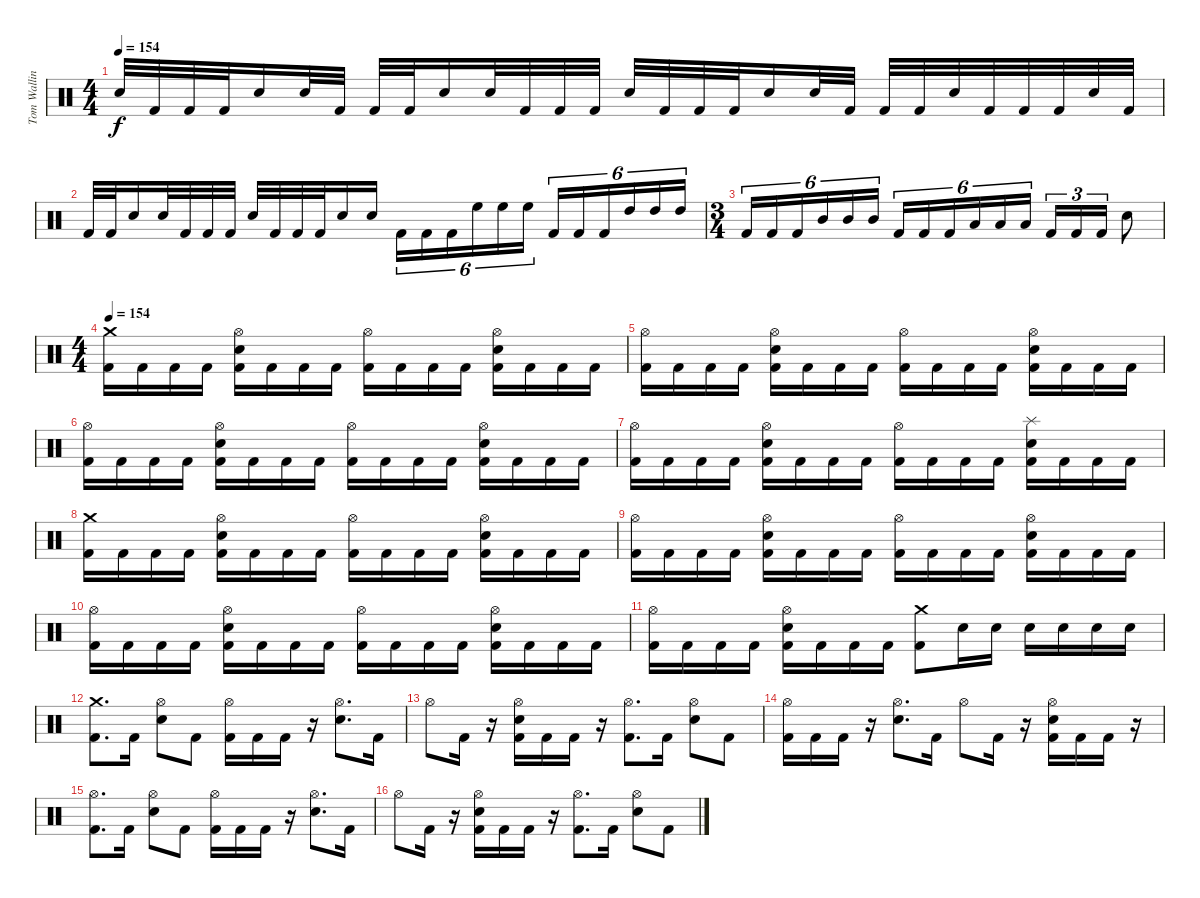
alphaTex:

\track ("Tom Walling" "Tom Wallin") {instrument percussion}
\staff {score}
\articulation defaults
\ts (4 4)
\tempo 154
\tempo 120
\tempo 154
\clef neutral
\ks c "Electric Snare (hit)".32{dy f} "Kick (hit) 2".32 "Kick (hit) 2".32 "Kick (hit) 2".32 "Electric Snare (hit)".16 "Electric Snare (hit)".32 "Kick (hit) 2".32 "Kick (hit) 2".32 "Kick (hit) 2".32 "Electric Snare (hit)".16 "Electric Snare (hit)".32 "Kick (hit) 2".32 "Kick (hit) 2".32 "Kick (hit) 2".32 "Electric Snare (hit)".32 "Kick (hit) 2".32 "Kick (hit) 2".32 "Kick (hit) 2".32 "Electric Snare (hit)".16 "Electric Snare (hit)".32 "Kick (hit) 2".32 "Kick (hit) 2".32 "Kick (hit) 2".32 "Electric Snare (hit)".32 "Kick (hit) 2".32 "Kick (hit) 2".32 "Kick (hit) 2".32 "Electric Snare (hit)".32 "Kick (hit) 2".32
|
"Kick (hit) 2".32 "Kick (hit) 2".32 "Electric Snare (hit)".16 "Electric Snare (hit)".32 "Kick (hit) 2".32 "Kick (hit) 2".32 "Kick (hit) 2".32 "Electric Snare (hit)".32 "Kick (hit) 2".32 "Kick (hit) 2".32 "Kick (hit) 2".32 "Electric Snare (hit)".16 "Electric Snare (hit)".16 "Kick (hit) 2".16{tu (6 4)} "Kick (hit) 2".16{tu (6 4)} "Kick (hit) 2".16{tu (6 4)} "High Floor Tom (hit)".16{tu (6 4)} "High Floor Tom (hit)".16{tu (6 4)} "High Floor Tom (hit)".16{tu (6 4)} "Kick (hit) 2".16{tu (6 4)} "Kick (hit) 2".16{tu (6 4)} "Kick (hit) 2".16{tu (6 4)} "High Tom (hit)".16{tu (6 4)} "High Tom (hit)".16{tu (6 4)} "High Tom (hit)".16{tu (6 4)} |
\ts (3 4)
"Kick (hit) 2".16{tu (6 4)} "Kick (hit) 2".16{tu (6 4)} "Kick (hit) 2".16{tu (6 4)} "Mid Tom (hit)".16{tu (6 4)} "Mid Tom (hit)".16{tu (6 4)} "Mid Tom (hit)".16{tu (6 4)} "Kick (hit) 2".16{tu (6 4)} "Kick (hit) 2".16{tu (6 4)} "Kick (hit) 2".16{tu (6 4)} "Low Tom (hit)".16{tu (6 4)} "Low Tom (hit)".16{tu (6 4)} "Low Tom (hit)".16{tu (6 4)} "Kick (hit) 2".16{tu (3 2)} "Kick (hit) 2".16{tu (3 2)} "Kick (hit) 2".16{tu (3 2)} "Electric Snare (hit)".8 |
\ts (4 4)
\tempo 154
("Kick (hit) 2" "Crash medium (hit)").16 "Kick (hit) 2".16 "Kick (hit) 2".16 "Kick (hit) 2".16 ("Kick (hit) 2" "Electric Snare (hit)" "Hi-Hat (open)").16 "Kick (hit) 2".16 "Kick (hit) 2".16 "Kick (hit) 2".16 ("Kick (hit) 2" "Hi-Hat (open)").16 "Kick (hit) 2".16 "Kick (hit) 2".16 "Kick (hit) 2".16 ("Kick (hit) 2" "Electric Snare (hit)" "Hi-Hat (open)").16 "Kick (hit) 2".16 "Kick (hit) 2".16 "Kick (hit) 2".16 |
("Kick (hit) 2" "Hi-Hat (open)").16 "Kick (hit) 2".16 "Kick (hit) 2".16 "Kick (hit) 2".16 ("Kick (hit) 2" "Electric Snare (hit)" "Hi-Hat (open)").16 "Kick (hit) 2".16 "Kick (hit) 2".16 "Kick (hit) 2".16 ("Kick (hit) 2" "Hi-Hat (open)").16 "Kick (hit) 2".16 "Kick (hit) 2".16 "Kick (hit) 2".16 ("Kick (hit) 2" "Electric Snare (hit)" "Hi-Hat (open)").16 "Kick (hit) 2".16 "Kick (hit) 2".16 "Kick (hit) 2".16 |
("Kick (hit) 2" "Hi-Hat (open)").16 "Kick (hit) 2".16 "Kick (hit) 2".16 "Kick (hit) 2".16 ("Kick (hit) 2" "Electric Snare (hit)" "Hi-Hat (open)").16 "Kick (hit) 2".16 "Kick (hit) 2".16 "Kick (hit) 2".16 ("Kick (hit) 2" "Hi-Hat (open)").16 "Kick (hit) 2".16 "Kick (hit) 2".16 "Kick (hit) 2".16 ("Kick (hit) 2" "Electric Snare (hit)" "Hi-Hat (open)").16 "Kick (hit) 2".16 "Kick (hit) 2".16 "Kick (hit) 2".16 |
("Kick (hit) 2" "Hi-Hat (open)").16 "Kick (hit) 2".16 "Kick (hit) 2".16 "Kick (hit) 2".16 ("Kick (hit) 2" "Electric Snare (hit)" "Hi-Hat (open)").16 "Kick (hit) 2".16 "Kick (hit) 2".16 "Kick (hit) 2".16 ("Kick (hit) 2" "Hi-Hat (open)").16 "Kick (hit) 2".16 "Kick (hit) 2".16 "Kick (hit) 2".16 ("Splash (hit)" "Kick (hit) 2" "Electric Snare (hit)").16 "Kick (hit) 2".16 "Kick (hit) 2".16 "Kick (hit) 2".16 |
("Crash medium (hit)" "Kick (hit) 2").16 "Kick (hit) 2".16 "Kick (hit) 2".16 "Kick (hit) 2".16 ("Kick (hit) 2" "Electric Snare (hit)" "Hi-Hat (open)").16 "Kick (hit) 2".16 "Kick (hit) 2".16 "Kick (hit) 2".16 ("Kick (hit) 2" "Hi-Hat (open)").16 "Kick (hit) 2".16 "Kick (hit) 2".16 "Kick (hit) 2".16 ("Kick (hit) 2" "Electric Snare (hit)" "Hi-Hat (open)").16 "Kick (hit) 2".16 "Kick (hit) 2".16 "Kick (hit) 2".16 |
("Kick (hit) 2" "Hi-Hat (open)").16 "Kick (hit) 2".16 "Kick (hit) 2".16 "Kick (hit) 2".16 ("Kick (hit) 2" "Electric Snare (hit)" "Hi-Hat (open)").16 "Kick (hit) 2".16 "Kick (hit) 2".16 "Kick (hit) 2".16 ("Kick (hit) 2" "Hi-Hat (open)").16 "Kick (hit) 2".16 "Kick (hit) 2".16 "Kick (hit) 2".16 ("Kick (hit) 2" "Electric Snare (hit)" "Hi-Hat (open)").16 "Kick (hit) 2".16 "Kick (hit) 2".16 "Kick (hit) 2".16 |
("Kick (hit) 2" "Hi-Hat (open)").16 "Kick (hit) 2".16 "Kick (hit) 2".16 "Kick (hit) 2".16 ("Kick (hit) 2" "Electric Snare (hit)" "Hi-Hat (open)").16 "Kick (hit) 2".16 "Kick (hit) 2".16 "Kick (hit) 2".16 ("Kick (hit) 2" "Hi-Hat (open)").16 "Kick (hit) 2".16 "Kick (hit) 2".16 "Kick (hit) 2".16 ("Kick (hit) 2" "Electric Snare (hit)" "Hi-Hat (open)").16 "Kick (hit) 2".16 "Kick (hit) 2".16 "Kick (hit) 2".16 |
("Kick (hit) 2" "Hi-Hat (open)").16 "Kick (hit) 2".16 "Kick (hit) 2".16 "Kick (hit) 2".16 ("Kick (hit) 2" "Electric Snare (hit)" "Hi-Hat (open)").16 "Kick (hit) 2".16 "Kick (hit) 2".16 "Kick (hit) 2".16 ("Crash medium (hit)" "Kick (hit) 2").8 "Electric Snare (hit)".16 "Electric Snare (hit)".16 "Electric Snare (hit)".16 "Electric Snare (hit)".16 "Electric Snare (hit)".16 "Electric Snare (hit)".16 |
("Crash medium (hit)" "Kick (hit) 2").8{d} "Kick (hit) 2".16 ("Hi-Hat (open)" "Electric Snare (hit)").8 "Kick (hit) 2".8 ("Hi-Hat (open)" "Kick (hit) 2").16 "Kick (hit) 2".16 "Kick (hit) 2".16 r.16 ("Hi-Hat (open)" "Electric Snare (hit)").8{d} "Kick (hit) 2".16 |
"Hi-Hat (open)".8 "Kick (hit) 2".16 r.16 ("Electric Snare (hit)" "Kick (hit) 2" "Hi-Hat (open)").16 "Kick (hit) 2".16 "Kick (hit) 2".16 r.16 ("Kick (hit) 2" "Hi-Hat (open)").8{d} "Kick (hit) 2".16 ("Electric Snare (hit)" "Hi-Hat (open)").8 "Kick (hit) 2".8 |
("Hi-Hat (open)" "Kick (hit) 2").16 "Kick (hit) 2".16 "Kick (hit) 2".16 r.16 ("Hi-Hat (open)" "Electric Snare (hit)").8{d} "Kick (hit) 2".16 "Hi-Hat (open)".8 "Kick (hit) 2".16 r.16 ("Hi-Hat (open)" "Kick (hit) 2" "Electric Snare (hit)").16 "Kick (hit) 2".16 "Kick (hit) 2".16 r.16 |
("Hi-Hat (open)" "Kick (hit) 2").8{d} "Kick (hit) 2".16 ("Hi-Hat (open)" "Electric Snare (hit)").8 "Kick (hit) 2".8 ("Kick (hit) 2" "Hi-Hat (open)").16 "Kick (hit) 2".16 "Kick (hit) 2".16 r.16 ("Electric Snare (hit)" "Hi-Hat (open)").8{d} "Kick (hit) 2".16 |
"Hi-Hat (open)".8 "Kick (hit) 2".16 r.16 ("Electric Snare (hit)" "Kick (hit) 2" "Hi-Hat (open)").16 "Kick (hit) 2".16 "Kick (hit) 2".16 r.16 ("Kick (hit) 2" "Hi-Hat (open)").8{d} "Kick (hit) 2".16 ("Electric Snare (hit)" "Hi-Hat (open)").8 "Kick (hit) 2".8
